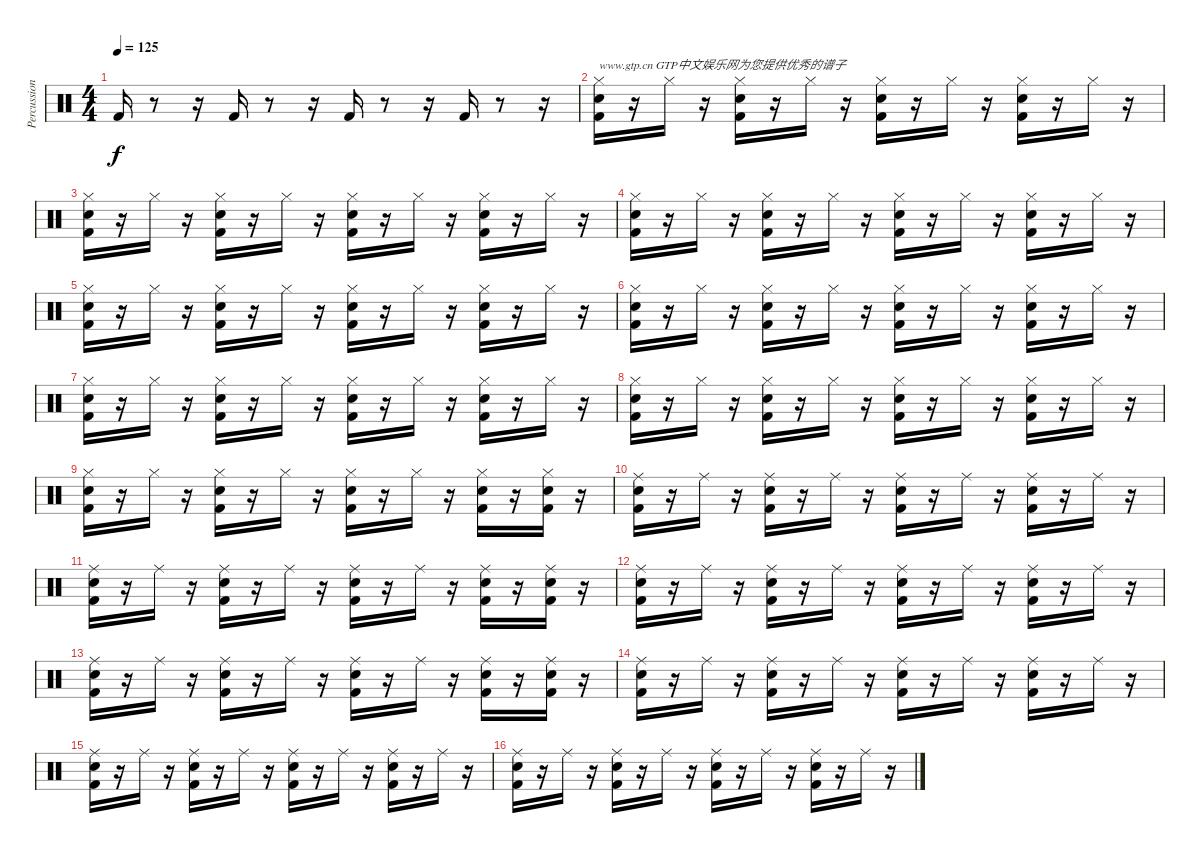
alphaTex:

\track ("Percussion" "Percussion") {instrument percussion}
\staff {score}
\articulation defaults
\ts (4 4)
\tempo 125
\clef neutral
\ks c "Kick (hit) 2".16{dy f}
r.8 r.16 "Kick (hit) 2".16 r.8 r.16 "Kick (hit) 2".16 r.8 r.16 "Kick (hit) 2".16 r.8 r.16 |
("Kick (hit) 2" "Snare (hit) 2" "Hi-Hat (closed)").16{txt "www.gtp.cn GTP中文娱乐网为您提供优秀的谱子"} r.16 "Hi-Hat (closed)".16 r.16 ("Kick (hit) 2" "Snare (hit) 2" "Hi-Hat (closed)").16 r.16 "Hi-Hat (closed)".16 r.16 ("Kick (hit) 2" "Snare (hit) 2" "Hi-Hat (closed)").16 r.16 "Hi-Hat (closed)".16 r.16 ("Kick (hit) 2" "Snare (hit) 2" "Hi-Hat (closed)").16 r.16 "Hi-Hat (closed)".16 r.16 |
("Kick (hit) 2" "Snare (hit) 2" "Hi-Hat (closed)").16 r.16 "Hi-Hat (closed)".16 r.16 ("Kick (hit) 2" "Snare (hit) 2" "Hi-Hat (closed)").16 r.16 "Hi-Hat (closed)".16 r.16 ("Kick (hit) 2" "Snare (hit) 2" "Hi-Hat (closed)").16 r.16 "Hi-Hat (closed)".16 r.16 ("Kick (hit) 2" "Snare (hit) 2" "Hi-Hat (closed)").16 r.16 "Hi-Hat (closed)".16 r.16 |
("Kick (hit) 2" "Snare (hit) 2" "Hi-Hat (closed)").16 r.16 "Hi-Hat (closed)".16 r.16 ("Kick (hit) 2" "Snare (hit) 2" "Hi-Hat (closed)").16 r.16 "Hi-Hat (closed)".16 r.16 ("Kick (hit) 2" "Snare (hit) 2" "Hi-Hat (closed)").16 r.16 "Hi-Hat (closed)".16 r.16 ("Kick (hit) 2" "Snare (hit) 2" "Hi-Hat (closed)").16 r.16 "Hi-Hat (closed)".16 r.16 |
("Kick (hit) 2" "Snare (hit) 2" "Hi-Hat (closed)").16 r.16 "Hi-Hat (closed)".16 r.16 ("Kick (hit) 2" "Snare (hit) 2" "Hi-Hat (closed)").16 r.16 "Hi-Hat (closed)".16 r.16 ("Kick (hit) 2" "Snare (hit) 2" "Hi-Hat (closed)").16 r.16 "Hi-Hat (closed)".16 r.16 ("Kick (hit) 2" "Snare (hit) 2" "Hi-Hat (closed)").16 r.16 "Hi-Hat (closed)".16 r.16 |
("Kick (hit) 2" "Snare (hit) 2" "Hi-Hat (closed)").16 r.16 "Hi-Hat (closed)".16 r.16 ("Kick (hit) 2" "Snare (hit) 2" "Hi-Hat (closed)").16 r.16 "Hi-Hat (closed)".16 r.16 ("Kick (hit) 2" "Snare (hit) 2" "Hi-Hat (closed)").16 r.16 "Hi-Hat (closed)".16 r.16 ("Kick (hit) 2" "Snare (hit) 2" "Hi-Hat (closed)").16 r.16 "Hi-Hat (closed)".16 r.16 |
("Kick (hit) 2" "Snare (hit) 2" "Hi-Hat (closed)").16 r.16 "Hi-Hat (closed)".16 r.16 ("Kick (hit) 2" "Snare (hit) 2" "Hi-Hat (closed)").16 r.16 "Hi-Hat (closed)".16 r.16 ("Kick (hit) 2" "Snare (hit) 2" "Hi-Hat (closed)").16 r.16 "Hi-Hat (closed)".16 r.16 ("Kick (hit) 2" "Snare (hit) 2" "Hi-Hat (closed)").16 r.16 "Hi-Hat (closed)".16 r.16 |
("Kick (hit) 2" "Snare (hit) 2" "Hi-Hat (closed)").16 r.16 "Hi-Hat (closed)".16 r.16 ("Kick (hit) 2" "Snare (hit) 2" "Hi-Hat (closed)").16 r.16 "Hi-Hat (closed)".16 r.16 ("Kick (hit) 2" "Snare (hit) 2" "Hi-Hat (closed)").16 r.16 "Hi-Hat (closed)".16 r.16 ("Kick (hit) 2" "Snare (hit) 2" "Hi-Hat (closed)").16 r.16 "Hi-Hat (closed)".16 r.16 |
("Kick (hit) 2" "Snare (hit) 2" "Hi-Hat (closed)").16 r.16 "Hi-Hat (closed)".16 r.16 ("Kick (hit) 2" "Snare (hit) 2" "Hi-Hat (closed)").16 r.16 "Hi-Hat (closed)".16 r.16 ("Kick (hit) 2" "Snare (hit) 2" "Hi-Hat (closed)").16 r.16 "Hi-Hat (closed)".16 r.16 ("Kick (hit) 2" "Snare (hit) 2" "Hi-Hat (closed)").16 r.16 ("Kick (hit) 2" "Snare (hit) 2" "Hi-Hat (closed)").16 r.16 |
("Kick (hit) 2" "Snare (hit) 2" "Ride (middle)").16 r.16 "Ride (middle)".16 r.16 ("Kick (hit) 2" "Snare (hit) 2" "Ride (middle)").16 r.16 "Ride (middle)".16 r.16 ("Kick (hit) 2" "Snare (hit) 2" "Ride (middle)").16 r.16 "Ride (middle)".16 r.16 ("Kick (hit) 2" "Snare (hit) 2" "Ride (middle)").16 r.16 "Ride (middle)".16 r.16 |
("Kick (hit) 2" "Snare (hit) 2" "Ride (middle)").16 r.16 "Ride (middle)".16 r.16 ("Kick (hit) 2" "Snare (hit) 2" "Ride (middle)").16 r.16 "Ride (middle)".16 r.16 ("Kick (hit) 2" "Snare (hit) 2" "Ride (middle)").16 r.16 "Ride (middle)".16 r.16 ("Kick (hit) 2" "Snare (hit) 2" "Ride (middle)").16 r.16 ("Kick (hit) 2" "Snare (hit) 2" "Ride (middle)").16 r.16 |
("Kick (hit) 2" "Snare (hit) 2" "Ride (middle)").16 r.16 "Ride (middle)".16 r.16 ("Kick (hit) 2" "Snare (hit) 2" "Ride (middle)").16 r.16 "Ride (middle)".16 r.16 ("Kick (hit) 2" "Snare (hit) 2" "Ride (middle)").16 r.16 "Ride (middle)".16 r.16 ("Kick (hit) 2" "Snare (hit) 2" "Ride (middle)").16 r.16 "Ride (middle)".16 r.16 |
("Kick (hit) 2" "Snare (hit) 2" "Ride (middle)").16 r.16 "Ride (middle)".16 r.16 ("Kick (hit) 2" "Snare (hit) 2" "Ride (middle)").16 r.16 "Ride (middle)".16 r.16 ("Kick (hit) 2" "Snare (hit) 2" "Ride (middle)").16 r.16 "Ride (middle)".16 r.16 ("Kick (hit) 2" "Snare (hit) 2" "Ride (middle)").16 r.16 ("Kick (hit) 2" "Snare (hit) 2" "Ride (middle)").16 r.16 |
("Kick (hit) 2" "Snare (hit) 2" "Ride (middle)").16 r.16 "Ride (middle)".16 r.16 ("Kick (hit) 2" "Snare (hit) 2" "Ride (middle)").16 r.16 "Ride (middle)".16 r.16 ("Kick (hit) 2" "Snare (hit) 2" "Ride (middle)").16 r.16 "Ride (middle)".16 r.16 ("Kick (hit) 2" "Snare (hit) 2" "Ride (middle)").16 r.16 "Ride (middle)".16 r.16 |
("Kick (hit) 2" "Snare (hit) 2" "Ride (middle)").16 r.16 "Ride (middle)".16 r.16 ("Kick (hit) 2" "Snare (hit) 2" "Ride (middle)").16 r.16 "Ride (middle)".16 r.16 ("Kick (hit) 2" "Snare (hit) 2" "Ride (middle)").16 r.16 "Ride (middle)".16 r.16 ("Kick (hit) 2" "Snare (hit) 2" "Ride (middle)").16 r.16 "Ride (middle)".16 r.16 |
("Kick (hit) 2" "Snare (hit) 2" "Ride (middle)").16 r.16 "Ride (middle)".16 r.16 ("Kick (hit) 2" "Snare (hit) 2" "Ride (middle)").16 r.16 "Ride (middle)".16 r.16 ("Kick (hit) 2" "Snare (hit) 2" "Ride (middle)").16 r.16 "Ride (middle)".16 r.16 ("Kick (hit) 2" "Snare (hit) 2" "Ride (middle)").16 r.16 "Ride (middle)".16 r.16
